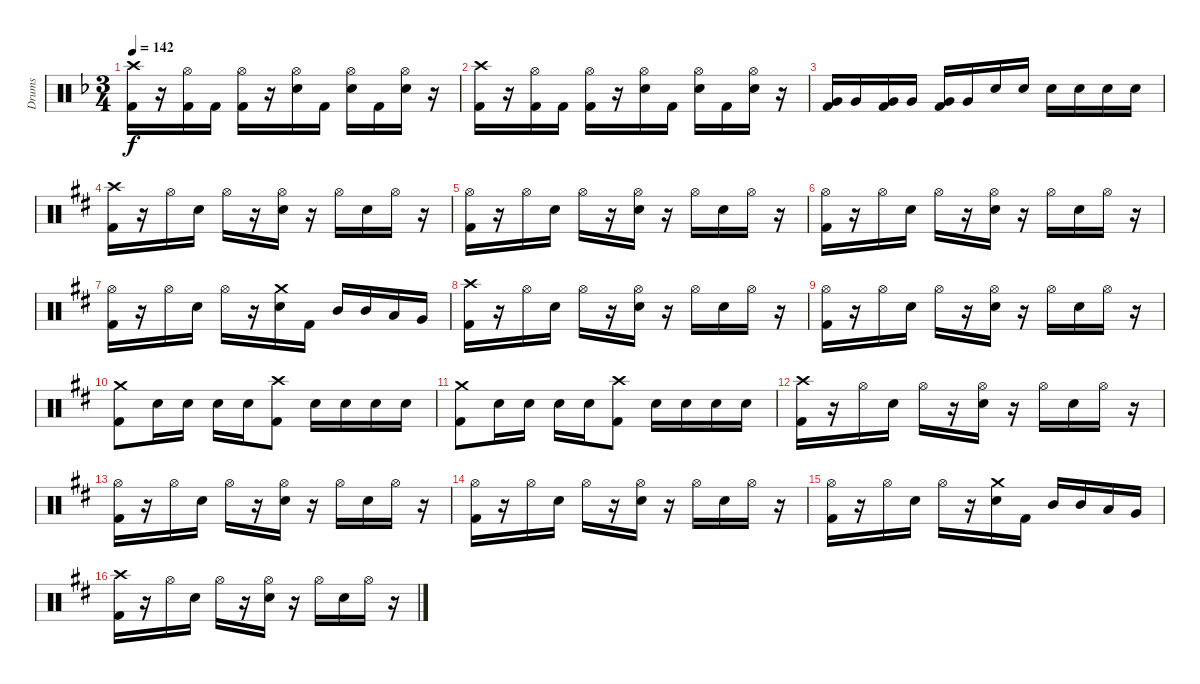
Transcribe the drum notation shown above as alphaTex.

\track ("Drums" "Drums") {instrument percussion}
\staff {score}
\articulation defaults
\ts (3 4)
\tempo 142
\clef neutral
\ks dminor
("Crash high (hit)" "Kick (hit) 2").16{dy f} r.16 ("Hi-Hat (open)" "Kick (hit) 2").16 "Kick (hit) 2".16 ("Hi-Hat (open)" "Kick (hit) 2").16 r.16 ("Hi-Hat (open)" "Electric Snare (hit)").16 "Kick (hit) 2".16 ("Hi-Hat (open)" "Electric Snare (hit)").16 "Kick (hit) 2".16 ("Hi-Hat (open)" "Electric Snare (hit)").16 r.16 |
("Crash high (hit)" "Kick (hit) 2").16 r.16 ("Hi-Hat (open)" "Kick (hit) 2").16 "Kick (hit) 2".16 ("Hi-Hat (open)" "Kick (hit) 2").16 r.16 ("Hi-Hat (open)" "Electric Snare (hit)").16 "Kick (hit) 2".16 ("Hi-Hat (open)" "Electric Snare (hit)").16 "Kick (hit) 2".16 ("Hi-Hat (open)" "Electric Snare (hit)").16 r.16 |
("Very Low Tom (hit)" "Kick (hit) 2").16 "Very Low Tom (hit)".16 ("Very Low Tom (hit)" "Kick (hit) 2").16 "Very Low Tom (hit)".16 ("Very Low Tom (hit)" "Kick (hit) 2").16 "Very Low Tom (hit)".16 "Electric Snare (hit)".16 "Electric Snare (hit)".16 "Electric Snare (hit)".16 "Electric Snare (hit)".16 "Electric Snare (hit)".16 "Electric Snare (hit)".16 |
\ks d
("Crash high (hit)" "Kick (hit) 2").16 r.16 "Hi-Hat (open)".16 "Electric Snare (hit)".16 "Hi-Hat (open)".16 r.16 ("Hi-Hat (open)" "Electric Snare (hit)").16 r.16 "Hi-Hat (open)".16 "Electric Snare (hit)".16 "Hi-Hat (open)".16 r.16 |
("Hi-Hat (open)" "Kick (hit) 2").16 r.16 "Hi-Hat (open)".16 "Electric Snare (hit)".16 "Hi-Hat (open)".16 r.16 ("Hi-Hat (open)" "Electric Snare (hit)").16 r.16 "Hi-Hat (open)".16 "Electric Snare (hit)".16 "Hi-Hat (open)".16 r.16 |
("Hi-Hat (open)" "Kick (hit) 2").16 r.16 "Hi-Hat (open)".16 "Electric Snare (hit)".16 "Hi-Hat (open)".16 r.16 ("Hi-Hat (open)" "Electric Snare (hit)").16 r.16 "Hi-Hat (open)".16 "Electric Snare (hit)".16 "Hi-Hat (open)".16 r.16 |
("Hi-Hat (open)" "Kick (hit) 2").16 r.16 "Hi-Hat (open)".16 "Electric Snare (hit)".16 "Hi-Hat (open)".16 r.16 ("Crash medium (hit)" "Electric Snare (hit)").16 "Kick (hit) 2".16 "Mid Tom (hit)".16 "Mid Tom (hit)".16 "Low Tom (hit)".16 "Very Low Tom (hit)".16 |
("Crash high (hit)" "Kick (hit) 2").16 r.16 "Hi-Hat (open)".16 "Electric Snare (hit)".16 "Hi-Hat (open)".16 r.16 ("Hi-Hat (open)" "Electric Snare (hit)").16 r.16 "Hi-Hat (open)".16 "Electric Snare (hit)".16 "Hi-Hat (open)".16 r.16 |
("Hi-Hat (open)" "Kick (hit) 2").16 r.16 "Hi-Hat (open)".16 "Electric Snare (hit)".16 "Hi-Hat (open)".16 r.16 ("Hi-Hat (open)" "Electric Snare (hit)").16 r.16 "Hi-Hat (open)".16 "Electric Snare (hit)".16 "Hi-Hat (open)".16 r.16 |
("Crash medium (hit)" "Kick (hit) 2").8 "Electric Snare (hit)".16 "Electric Snare (hit)".16 "Electric Snare (hit)".16 "Electric Snare (hit)".16 ("Crash high (hit)" "Kick (hit) 2").8 "Electric Snare (hit)".16 "Electric Snare (hit)".16 "Electric Snare (hit)".16 "Electric Snare (hit)".16 |
("Crash medium (hit)" "Kick (hit) 2").8 "Electric Snare (hit)".16 "Electric Snare (hit)".16 "Electric Snare (hit)".16 "Electric Snare (hit)".16 ("Crash high (hit)" "Kick (hit) 2").8 "Electric Snare (hit)".16 "Electric Snare (hit)".16 "Electric Snare (hit)".16 "Electric Snare (hit)".16 |
("Crash high (hit)" "Kick (hit) 2").16 r.16 "Hi-Hat (open)".16 "Electric Snare (hit)".16 "Hi-Hat (open)".16 r.16 ("Hi-Hat (open)" "Electric Snare (hit)").16 r.16 "Hi-Hat (open)".16 "Electric Snare (hit)".16 "Hi-Hat (open)".16 r.16 |
("Hi-Hat (open)" "Kick (hit) 2").16 r.16 "Hi-Hat (open)".16 "Electric Snare (hit)".16 "Hi-Hat (open)".16 r.16 ("Hi-Hat (open)" "Electric Snare (hit)").16 r.16 "Hi-Hat (open)".16 "Electric Snare (hit)".16 "Hi-Hat (open)".16 r.16 |
("Hi-Hat (open)" "Kick (hit) 2").16 r.16 "Hi-Hat (open)".16 "Electric Snare (hit)".16 "Hi-Hat (open)".16 r.16 ("Hi-Hat (open)" "Electric Snare (hit)").16 r.16 "Hi-Hat (open)".16 "Electric Snare (hit)".16 "Hi-Hat (open)".16 r.16 |
("Hi-Hat (open)" "Kick (hit) 2").16 r.16 "Hi-Hat (open)".16 "Electric Snare (hit)".16 "Hi-Hat (open)".16 r.16 ("Crash medium (hit)" "Electric Snare (hit)").16 "Kick (hit) 2".16 "Mid Tom (hit)".16 "Mid Tom (hit)".16 "Low Tom (hit)".16 "Very Low Tom (hit)".16 |
("Crash high (hit)" "Kick (hit) 2").16 r.16 "Hi-Hat (open)".16 "Electric Snare (hit)".16 "Hi-Hat (open)".16 r.16 ("Hi-Hat (open)" "Electric Snare (hit)").16 r.16 "Hi-Hat (open)".16 "Electric Snare (hit)".16 "Hi-Hat (open)".16 r.16
